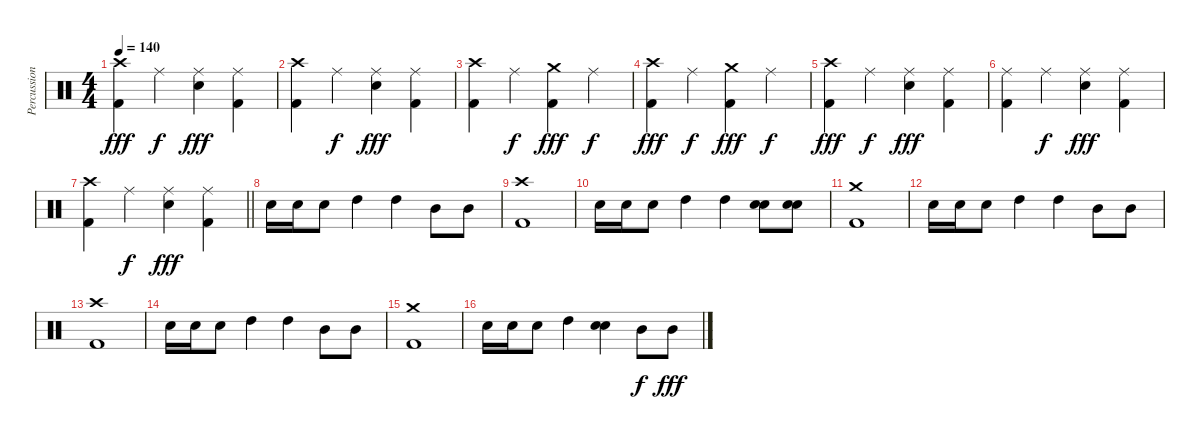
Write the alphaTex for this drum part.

\track ("Percussion" "Percussion") {instrument percussion}
\staff {score}
\articulation defaults
\ts (4 4)
\tempo 140
\clef neutral
\ks c
("Crash high (hit)" "Kick (hit) 2").4{dy fff} "Ride (middle)".4{dy f} ("Ride (middle)" "Electric Snare (hit)").4{dy fff} ("Ride (middle)" "Kick (hit) 2").4 |
("Crash high (hit)" "Kick (hit) 2").4 "Ride (middle)".4{dy f} ("Ride (middle)" "Electric Snare (hit)").4{dy fff} ("Ride (middle)" "Kick (hit) 2").4 |
("Crash high (hit)" "Kick (hit) 2").4 "Ride (middle)".4{dy f} ("Crash medium (hit)" "Kick (hit) 2").4{dy fff} "Ride (middle)".4{dy f} |
("Crash high (hit)" "Kick (hit) 2").4{dy fff} "Ride (middle)".4{dy f} ("Crash medium (hit)" "Kick (hit) 2").4{dy fff} "Ride (middle)".4{dy f} |
("Crash high (hit)" "Kick (hit) 2").4{dy fff} "Ride (middle)".4{dy f} ("Ride (middle)" "Electric Snare (hit)").4{dy fff} ("Ride (middle)" "Kick (hit) 2").4 |
("Ride (middle)" "Kick (hit) 2").4 "Ride (middle)".4{dy f} ("Ride (middle)" "Electric Snare (hit)").4{dy fff} ("Ride (middle)" "Kick (hit) 2").4 |
\barLineRight lightlight
("Crash high (hit)" "Kick (hit) 2").4 "Ride (middle)".4{dy f} ("Ride (middle)" "Electric Snare (hit)").4{dy fff} ("Ride (middle)" "Kick (hit) 2").4 |
"Electric Snare (hit)".16 "Electric Snare (hit)".16 "Electric Snare (hit)".8 "High Tom (hit)".4 "High Tom (hit)".4 "Mid Tom (hit)".8 "Mid Tom (hit)".8 |
("Crash high (hit)" "Kick (hit) 2").1 |
"Electric Snare (hit)".16 "Electric Snare (hit)".16 "Electric Snare (hit)".8 "High Tom (hit)".4 "High Tom (hit)".4 ("Electric Snare (hit)" "Snare (hit) 2").8 ("Electric Snare (hit)" "Snare (hit) 2").8 |
("Crash medium (hit)" "Kick (hit) 2").1 |
"Electric Snare (hit)".16 "Electric Snare (hit)".16 "Electric Snare (hit)".8 "High Tom (hit)".4 "High Tom (hit)".4 "Mid Tom (hit)".8 "Mid Tom (hit)".8 |
("Crash high (hit)" "Kick (hit) 2").1 |
"Electric Snare (hit)".16 "Electric Snare (hit)".16 "Electric Snare (hit)".8 "High Tom (hit)".4 "High Tom (hit)".4 "Mid Tom (hit)".8 "Mid Tom (hit)".8 |
("Crash medium (hit)" "Kick (hit) 2").1 |
"Electric Snare (hit)".16 "Electric Snare (hit)".16 "Electric Snare (hit)".8 "High Tom (hit)".4 ("Snare (hit) 2" "Electric Snare (hit)").4 "Mid Tom (hit)".8{dy f} "Mid Tom (hit)".8{dy fff}
